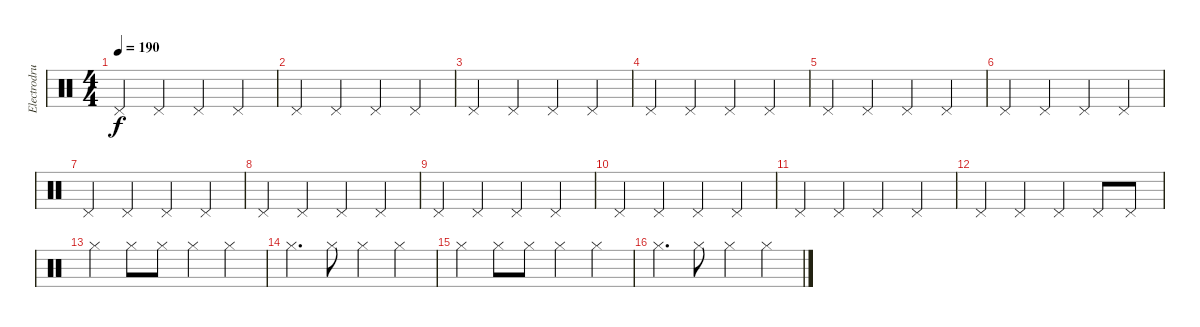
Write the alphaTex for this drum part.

\track ("Electrodrums1" "Electrodru") {instrument percussion}
\staff {score}
\articulation defaults
\ts (4 4)
\tempo 190
\clef neutral
\ks c "Pedal Hi-Hat (hit)".4{dy f} "Pedal Hi-Hat (hit)".4 "Pedal Hi-Hat (hit)".4 "Pedal Hi-Hat (hit)".4
|
"Pedal Hi-Hat (hit)".4 "Pedal Hi-Hat (hit)".4 "Pedal Hi-Hat (hit)".4 "Pedal Hi-Hat (hit)".4 |
"Pedal Hi-Hat (hit)".4 "Pedal Hi-Hat (hit)".4 "Pedal Hi-Hat (hit)".4 "Pedal Hi-Hat (hit)".4 |
"Pedal Hi-Hat (hit)".4 "Pedal Hi-Hat (hit)".4 "Pedal Hi-Hat (hit)".4 "Pedal Hi-Hat (hit)".4 |
"Pedal Hi-Hat (hit)".4 "Pedal Hi-Hat (hit)".4 "Pedal Hi-Hat (hit)".4 "Pedal Hi-Hat (hit)".4 |
"Pedal Hi-Hat (hit)".4 "Pedal Hi-Hat (hit)".4 "Pedal Hi-Hat (hit)".4 "Pedal Hi-Hat (hit)".4 |
"Pedal Hi-Hat (hit)".4 "Pedal Hi-Hat (hit)".4 "Pedal Hi-Hat (hit)".4 "Pedal Hi-Hat (hit)".4 |
"Pedal Hi-Hat (hit)".4 "Pedal Hi-Hat (hit)".4 "Pedal Hi-Hat (hit)".4 "Pedal Hi-Hat (hit)".4 |
"Pedal Hi-Hat (hit)".4 "Pedal Hi-Hat (hit)".4 "Pedal Hi-Hat (hit)".4 "Pedal Hi-Hat (hit)".4 |
"Pedal Hi-Hat (hit)".4 "Pedal Hi-Hat (hit)".4 "Pedal Hi-Hat (hit)".4 "Pedal Hi-Hat (hit)".4 |
"Pedal Hi-Hat (hit)".4 "Pedal Hi-Hat (hit)".4 "Pedal Hi-Hat (hit)".4 "Pedal Hi-Hat (hit)".4 |
"Pedal Hi-Hat (hit)".4 "Pedal Hi-Hat (hit)".4 "Pedal Hi-Hat (hit)".4 "Pedal Hi-Hat (hit)".8 "Pedal Hi-Hat (hit)".8 |
"Hi-Hat (closed)".4 "Hi-Hat (closed)".8 "Hi-Hat (closed)".8 "Hi-Hat (closed)".4 "Hi-Hat (closed)".4 |
"Hi-Hat (closed)".4{d} "Hi-Hat (closed)".8 "Hi-Hat (closed)".4 "Hi-Hat (closed)".4 |
"Hi-Hat (closed)".4 "Hi-Hat (closed)".8 "Hi-Hat (closed)".8 "Hi-Hat (closed)".4 "Hi-Hat (closed)".4 |
"Hi-Hat (closed)".4{d} "Hi-Hat (closed)".8 "Hi-Hat (closed)".4 "Hi-Hat (closed)".4
